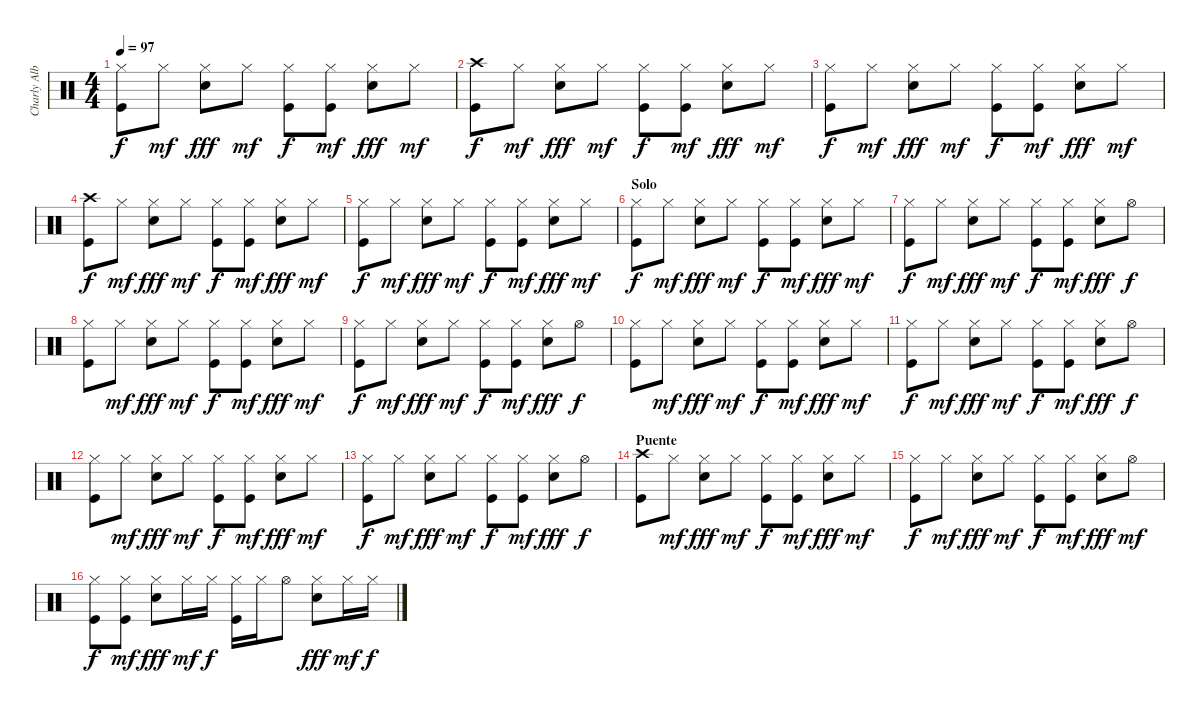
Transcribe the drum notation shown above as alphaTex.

\track ("Charly Alberti" "Charly Alb") {instrument percussion}
\staff {score}
\articulation defaults
\ts (4 4)
\tempo 97
\clef neutral
\ks c
("Kick (hit)" "Hi-Hat (closed)").8{dy f} "Hi-Hat (closed)".8{dy mf} ("Snare (hit) 2" "Hi-Hat (closed)").8{dy fff} "Hi-Hat (closed)".8{dy mf} ("Kick (hit)" "Hi-Hat (closed)").8{dy f} ("Kick (hit)" "Hi-Hat (closed)").8{dy mf} ("Snare (hit) 2" "Hi-Hat (closed)").8{dy fff} "Hi-Hat (closed)".8{dy mf} |
("Kick (hit)" "Crash high (hit)").8{dy f} "Hi-Hat (closed)".8{dy mf} ("Snare (hit) 2" "Hi-Hat (closed)").8{dy fff} "Hi-Hat (closed)".8{dy mf} ("Kick (hit)" "Hi-Hat (closed)").8{dy f} ("Kick (hit)" "Hi-Hat (closed)").8{dy mf} ("Snare (hit) 2" "Hi-Hat (closed)").8{dy fff} "Hi-Hat (closed)".8{dy mf} |
("Kick (hit)" "Hi-Hat (closed)").8{dy f} "Hi-Hat (closed)".8{dy mf} ("Snare (hit) 2" "Hi-Hat (closed)").8{dy fff} "Hi-Hat (closed)".8{dy mf} ("Kick (hit)" "Hi-Hat (closed)").8{dy f} ("Kick (hit)" "Hi-Hat (closed)").8{dy mf} ("Snare (hit) 2" "Hi-Hat (closed)").8{dy fff} "Hi-Hat (closed)".8{dy mf} |
("Kick (hit)" "Crash high (hit)").8{dy f} "Hi-Hat (closed)".8{dy mf} ("Snare (hit) 2" "Hi-Hat (closed)").8{dy fff} "Hi-Hat (closed)".8{dy mf} ("Kick (hit)" "Hi-Hat (closed)").8{dy f} ("Kick (hit)" "Hi-Hat (closed)").8{dy mf} ("Snare (hit) 2" "Hi-Hat (closed)").8{dy fff} "Hi-Hat (closed)".8{dy mf} |
("Kick (hit)" "Hi-Hat (closed)").8{dy f} "Hi-Hat (closed)".8{dy mf} ("Snare (hit) 2" "Hi-Hat (closed)").8{dy fff} "Hi-Hat (closed)".8{dy mf} ("Kick (hit)" "Hi-Hat (closed)").8{dy f} ("Kick (hit)" "Hi-Hat (closed)").8{dy mf} ("Snare (hit) 2" "Hi-Hat (closed)").8{dy fff} "Hi-Hat (closed)".8{dy mf} |
\section ("" "Solo")
("Kick (hit)" "Hi-Hat (closed)").8{dy f} "Hi-Hat (closed)".8{dy mf} ("Snare (hit) 2" "Hi-Hat (closed)").8{dy fff} "Hi-Hat (closed)".8{dy mf} ("Kick (hit)" "Hi-Hat (closed)").8{dy f} ("Kick (hit)" "Hi-Hat (closed)").8{dy mf} ("Snare (hit) 2" "Hi-Hat (closed)").8{dy fff} "Hi-Hat (closed)".8{dy mf} |
("Kick (hit)" "Hi-Hat (closed)").8{dy f} "Hi-Hat (closed)".8{dy mf} ("Snare (hit) 2" "Hi-Hat (closed)").8{dy fff} "Hi-Hat (closed)".8{dy mf} ("Kick (hit)" "Hi-Hat (closed)").8{dy f} ("Kick (hit)" "Hi-Hat (closed)").8{dy mf} ("Snare (hit) 2" "Hi-Hat (closed)").8{dy fff} "Hi-Hat (open)".8{dy f} |
("Kick (hit)" "Hi-Hat (closed)").8 "Hi-Hat (closed)".8{dy mf} ("Snare (hit) 2" "Hi-Hat (closed)").8{dy fff} "Hi-Hat (closed)".8{dy mf} ("Kick (hit)" "Hi-Hat (closed)").8{dy f} ("Kick (hit)" "Hi-Hat (closed)").8{dy mf} ("Snare (hit) 2" "Hi-Hat (closed)").8{dy fff} "Hi-Hat (closed)".8{dy mf} |
("Kick (hit)" "Hi-Hat (closed)").8{dy f} "Hi-Hat (closed)".8{dy mf} ("Snare (hit) 2" "Hi-Hat (closed)").8{dy fff} "Hi-Hat (closed)".8{dy mf} ("Kick (hit)" "Hi-Hat (closed)").8{dy f} ("Kick (hit)" "Hi-Hat (closed)").8{dy mf} ("Snare (hit) 2" "Hi-Hat (closed)").8{dy fff} "Hi-Hat (open)".8{dy f} |
("Kick (hit)" "Hi-Hat (closed)").8 "Hi-Hat (closed)".8{dy mf} ("Snare (hit) 2" "Hi-Hat (closed)").8{dy fff} "Hi-Hat (closed)".8{dy mf} ("Kick (hit)" "Hi-Hat (closed)").8{dy f} ("Kick (hit)" "Hi-Hat (closed)").8{dy mf} ("Snare (hit) 2" "Hi-Hat (closed)").8{dy fff} "Hi-Hat (closed)".8{dy mf} |
("Kick (hit)" "Hi-Hat (closed)").8{dy f} "Hi-Hat (closed)".8{dy mf} ("Snare (hit) 2" "Hi-Hat (closed)").8{dy fff} "Hi-Hat (closed)".8{dy mf} ("Kick (hit)" "Hi-Hat (closed)").8{dy f} ("Kick (hit)" "Hi-Hat (closed)").8{dy mf} ("Snare (hit) 2" "Hi-Hat (closed)").8{dy fff} "Hi-Hat (open)".8{dy f} |
("Kick (hit)" "Hi-Hat (closed)").8 "Hi-Hat (closed)".8{dy mf} ("Snare (hit) 2" "Hi-Hat (closed)").8{dy fff} "Hi-Hat (closed)".8{dy mf} ("Kick (hit)" "Hi-Hat (closed)").8{dy f} ("Kick (hit)" "Hi-Hat (closed)").8{dy mf} ("Snare (hit) 2" "Hi-Hat (closed)").8{dy fff} "Hi-Hat (closed)".8{dy mf} |
("Kick (hit)" "Hi-Hat (closed)").8{dy f} "Hi-Hat (closed)".8{dy mf} ("Snare (hit) 2" "Hi-Hat (closed)").8{dy fff} "Hi-Hat (closed)".8{dy mf} ("Kick (hit)" "Hi-Hat (closed)").8{dy f} ("Kick (hit)" "Hi-Hat (closed)").8{dy mf} ("Snare (hit) 2" "Hi-Hat (closed)").8{dy fff} "Hi-Hat (open)".8{dy f} |
\section ("" "Puente")
("Kick (hit)" "Crash high (hit)").8 "Hi-Hat (closed)".8{dy mf} ("Snare (hit) 2" "Hi-Hat (closed)").8{dy fff} "Hi-Hat (closed)".8{dy mf} ("Kick (hit)" "Hi-Hat (closed)").8{dy f} ("Kick (hit)" "Hi-Hat (closed)").8{dy mf} ("Snare (hit) 2" "Hi-Hat (closed)").8{dy fff} "Hi-Hat (closed)".8{dy mf} |
("Kick (hit)" "Hi-Hat (closed)").8{dy f} "Hi-Hat (closed)".8{dy mf} ("Snare (hit) 2" "Hi-Hat (closed)").8{dy fff} "Hi-Hat (closed)".8{dy mf} ("Kick (hit)" "Hi-Hat (closed)").8{dy f} ("Kick (hit)" "Hi-Hat (closed)").8{dy mf} ("Snare (hit) 2" "Hi-Hat (closed)").8{dy fff} "Hi-Hat (open)".8{dy mf} |
("Kick (hit)" "Hi-Hat (closed)").8{dy f} ("Kick (hit)" "Hi-Hat (closed)").8{dy mf} ("Snare (hit) 2" "Hi-Hat (closed)").8{dy fff} "Hi-Hat (closed)".16{dy mf} "Hi-Hat (closed)".16{dy f} ("Kick (hit)" "Hi-Hat (closed)").16 "Hi-Hat (closed)".16 "Hi-Hat (open)".8 ("Snare (hit) 2" "Hi-Hat (closed)").8{dy fff} "Hi-Hat (closed)".16{dy mf} "Hi-Hat (closed)".16{dy f}
